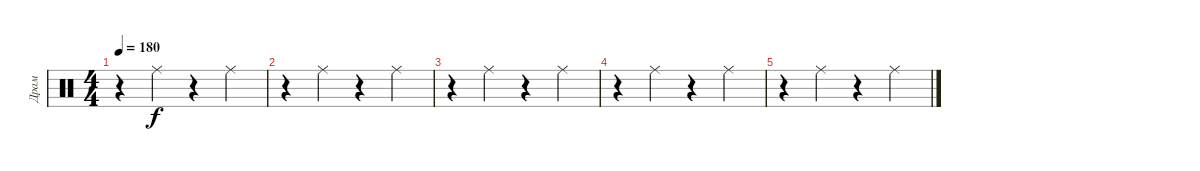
\track ("Драм" "Драм") {instrument percussion}
\staff {score}
\articulation defaults
\ts (4 4)
\tempo 180
\clef neutral
\ks c
r.4{dy f} "Ride (middle)".4 r.4 "Ride (middle)".4 |
r.4 "Ride (middle)".4 r.4 "Ride (middle)".4 |
r.4 "Ride (middle)".4 r.4 "Ride (middle)".4 |
r.4 "Ride (middle)".4 r.4 "Ride (middle)".4 |
r.4 "Ride (middle)".4 r.4 "Ride (middle)".4
